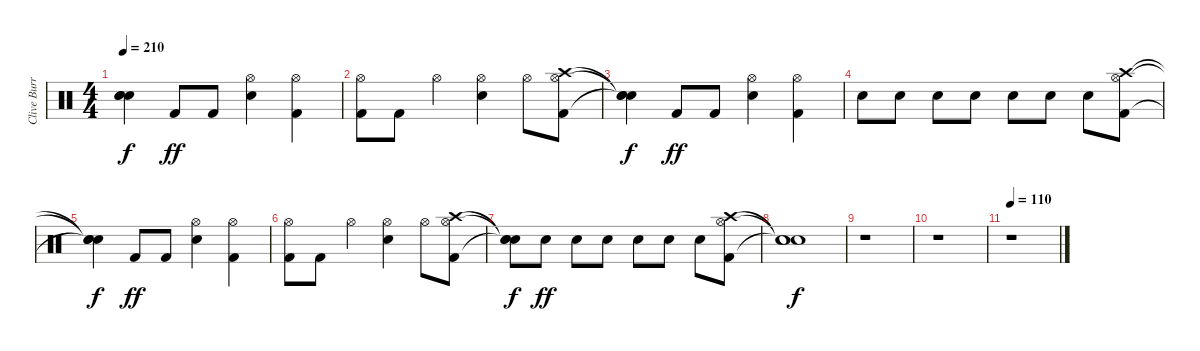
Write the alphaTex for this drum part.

\track ("Clive Burr" "Clive Burr") {instrument percussion}
\staff {score}
\articulation defaults
\ts (4 4)
\tempo 210
\clef neutral
\ks c
("Snare (hit)"{t} "Snare (hit)"{t} "Snare (hit)"{t}).4{dy f} "Kick (hit) 2".8{dy ff} "Kick (hit) 2".8 ("Snare (hit) 2" "Hi-Hat (open)").4 ("Kick (hit) 2" "Hi-Hat (open)").4 |
("Kick (hit) 2" "Hi-Hat (open)").8 "Kick (hit) 2".8 "Hi-Hat (open)".4 ("Snare (hit) 2" "Hi-Hat (open)").4 "Hi-Hat (open)".8 ("Kick (hit) 2" "Hi-Hat (open)" "Crash high (hit)").8 |
("Snare (hit)"{t} "Snare (hit)"{t} "Snare (hit)"{t}).4{dy f} "Kick (hit) 2".8{dy ff} "Kick (hit) 2".8 ("Snare (hit) 2" "Hi-Hat (open)").4 ("Kick (hit) 2" "Hi-Hat (open)").4 |
"Snare (hit) 2".8 "Snare (hit) 2".8 "Snare (hit) 2".8 "Snare (hit) 2".8 "Snare (hit) 2".8 "Snare (hit) 2".8 "Snare (hit) 2".8 ("Kick (hit) 2" "Hi-Hat (open)" "Crash high (hit)").8 |
("Snare (hit)"{t} "Snare (hit)"{t} "Snare (hit)"{t}).4{dy f} "Kick (hit) 2".8{dy ff} "Kick (hit) 2".8 ("Snare (hit) 2" "Hi-Hat (open)").4 ("Kick (hit) 2" "Hi-Hat (open)").4 |
("Kick (hit) 2" "Hi-Hat (open)").8 "Kick (hit) 2".8 "Hi-Hat (open)".4 ("Snare (hit) 2" "Hi-Hat (open)").4 "Hi-Hat (open)".8 ("Kick (hit) 2" "Hi-Hat (open)" "Crash high (hit)").8 |
("Snare (hit)"{t} "Snare (hit)"{t} "Snare (hit)"{t}).8{dy f} "Snare (hit) 2".8{dy ff} "Snare (hit) 2".8 "Snare (hit) 2".8 "Snare (hit) 2".8 "Snare (hit) 2".8 "Snare (hit) 2".8 ("Kick (hit) 2" "Hi-Hat (open)" "Crash high (hit)").8 |
("Snare (hit)"{t} "Snare (hit)"{t} "Snare (hit)"{t}).1{dy f} |
r.1 |
r.1 |
\tempo 110
r.1
